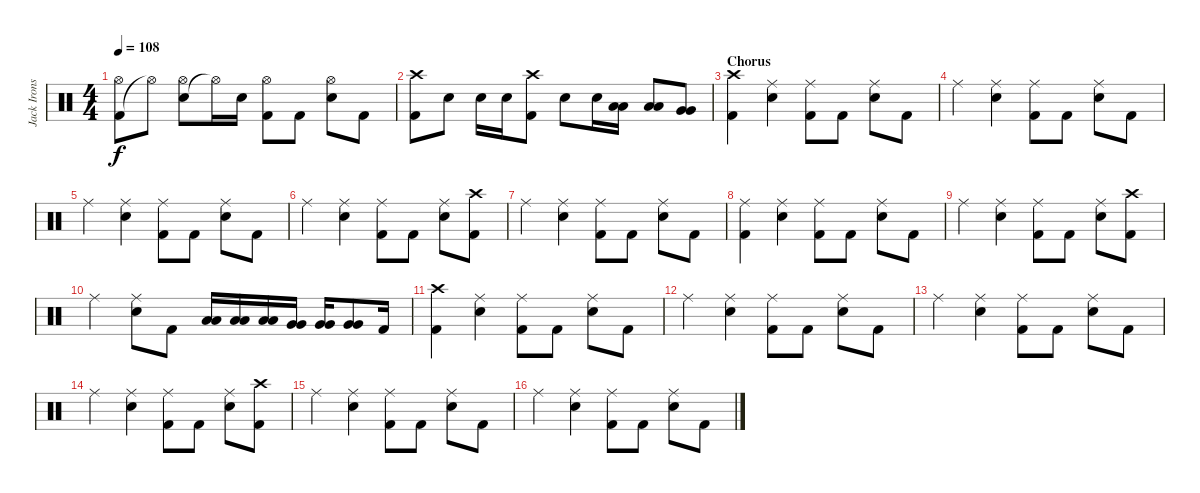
\track ("Jack Irons" "Jack Irons") {instrument percussion}
\staff {score}
\articulation defaults
\ts (4 4)
\tempo 108
\clef neutral
\ks c
("Kick (hit) 2" "Hi-Hat (open)"{t}).8{dy f} "Hi-Hat (open)"{t}.8 ("Electric Snare (hit)" "Hi-Hat (open)").8 "Hi-Hat (open)"{t}.16 "Electric Snare (hit)".16 ("Kick (hit) 2" "Hi-Hat (open)").8 "Kick (hit) 2".8 ("Electric Snare (hit)" "Hi-Hat (open)").8 "Kick (hit) 2".8 |
("Kick (hit) 2" "Crash high (hit)").8 "Electric Snare (hit)".8 "Electric Snare (hit)".16 "Electric Snare (hit)".16 ("Kick (hit) 2" "Crash high (hit)").8 "Electric Snare (hit)".8 "Electric Snare (hit)".16 ("Low Tom (hit)" "Low Tom (hit)").16 ("Low Tom (hit)" "Low Tom (hit)").8 ("Very Low Tom (hit)" "Very Low Tom (hit)").8 |
\section ("" "Chorus")
("Kick (hit) 2" "Crash high (hit)").4 ("Electric Snare (hit)" "Ride (middle)").4 ("Kick (hit) 2" "Ride (middle)").8 "Kick (hit) 2".8 ("Electric Snare (hit)" "Ride (middle)").8 "Kick (hit) 2".8 |
"Ride (middle)".4 ("Electric Snare (hit)" "Ride (middle)").4 ("Kick (hit) 2" "Ride (middle)").8 "Kick (hit) 2".8 ("Electric Snare (hit)" "Ride (middle)").8 "Kick (hit) 2".8 |
"Ride (middle)".4 ("Electric Snare (hit)" "Ride (middle)").4 ("Kick (hit) 2" "Ride (middle)").8 "Kick (hit) 2".8 ("Electric Snare (hit)" "Ride (middle)").8 "Kick (hit) 2".8 |
"Ride (middle)".4 ("Electric Snare (hit)" "Ride (middle)").4 ("Kick (hit) 2" "Ride (middle)").8 "Kick (hit) 2".8 ("Electric Snare (hit)" "Ride (middle)").8 ("Kick (hit) 2" "Crash high (hit)").8 |
"Ride (middle)".4 ("Electric Snare (hit)" "Ride (middle)").4 ("Kick (hit) 2" "Ride (middle)").8 "Kick (hit) 2".8 ("Electric Snare (hit)" "Ride (middle)").8 "Kick (hit) 2".8 |
("Kick (hit) 2" "Ride (middle)").4 ("Electric Snare (hit)" "Ride (middle)").4 ("Kick (hit) 2" "Ride (middle)").8 "Kick (hit) 2".8 ("Electric Snare (hit)" "Ride (middle)").8 "Kick (hit) 2".8 |
"Ride (middle)".4 ("Electric Snare (hit)" "Ride (middle)").4 ("Kick (hit) 2" "Ride (middle)").8 "Kick (hit) 2".8 ("Electric Snare (hit)" "Ride (middle)").8 ("Kick (hit) 2" "Crash high (hit)").8 |
"Ride (middle)".4 ("Electric Snare (hit)" "Ride (middle)").8 "Kick (hit) 2".8 ("Low Tom (hit)" "Low Tom (hit)").16 ("Low Tom (hit)" "Low Tom (hit)").16 ("Low Tom (hit)" "Low Tom (hit)").16 ("Very Low Tom (hit)" "Very Low Tom (hit)").16 ("Very Low Tom (hit)" "Very Low Tom (hit)").16 ("Very Low Tom (hit)" "Very Low Tom (hit)").8 "Kick (hit) 2".16 |
("Kick (hit) 2" "Crash high (hit)").4 ("Electric Snare (hit)" "Ride (middle)").4 ("Kick (hit) 2" "Ride (middle)").8 "Kick (hit) 2".8 ("Electric Snare (hit)" "Ride (middle)").8 "Kick (hit) 2".8 |
"Ride (middle)".4 ("Electric Snare (hit)" "Ride (middle)").4 ("Kick (hit) 2" "Ride (middle)").8 "Kick (hit) 2".8 ("Electric Snare (hit)" "Ride (middle)").8 "Kick (hit) 2".8 |
"Ride (middle)".4 ("Electric Snare (hit)" "Ride (middle)").4 ("Kick (hit) 2" "Ride (middle)").8 "Kick (hit) 2".8 ("Electric Snare (hit)" "Ride (middle)").8 "Kick (hit) 2".8 |
"Ride (middle)".4 ("Electric Snare (hit)" "Ride (middle)").4 ("Kick (hit) 2" "Ride (middle)").8 "Kick (hit) 2".8 ("Electric Snare (hit)" "Ride (middle)").8 ("Kick (hit) 2" "Crash high (hit)").8 |
"Ride (middle)".4 ("Electric Snare (hit)" "Ride (middle)").4 ("Kick (hit) 2" "Ride (middle)").8 "Kick (hit) 2".8 ("Electric Snare (hit)" "Ride (middle)").8 "Kick (hit) 2".8 |
"Ride (middle)".4 ("Electric Snare (hit)" "Ride (middle)").4 ("Kick (hit) 2" "Ride (middle)").8 "Kick (hit) 2".8 ("Electric Snare (hit)" "Ride (middle)").8 "Kick (hit) 2".8
